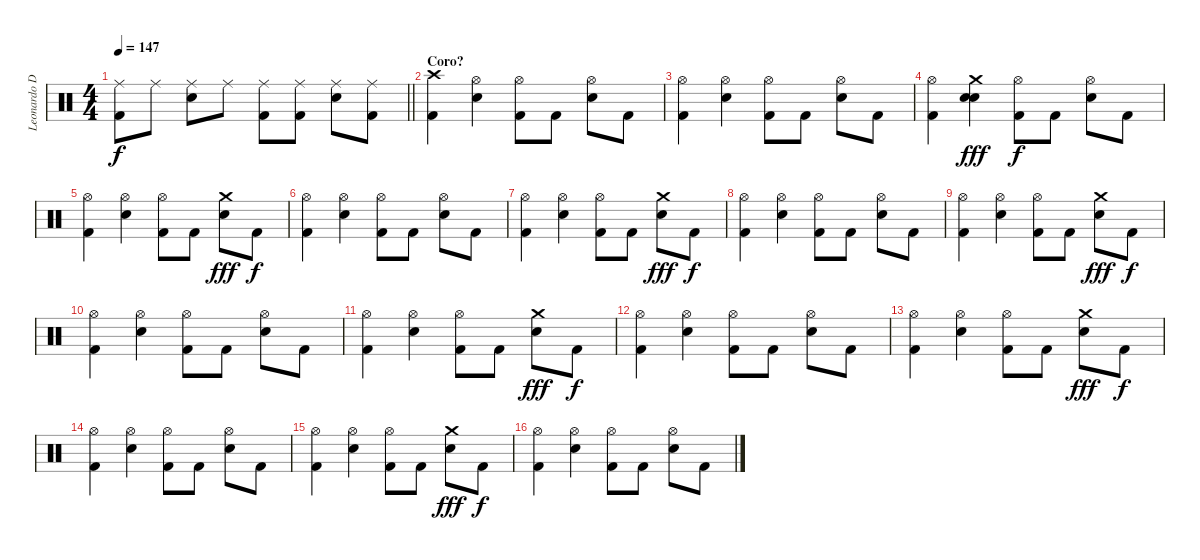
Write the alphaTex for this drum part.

\track ("Leonardo De Cecco" "Leonardo D") {instrument percussion}
\staff {score}
\articulation defaults
\ts (4 4)
\tempo 147
\clef neutral
\barLineRight lightlight
\ks c
("Ride (middle)" "Kick (hit) 2").8{dy f} "Ride (middle)".8 ("Ride (middle)" "Electric Snare (hit)").8 "Ride (middle)".8 ("Ride (middle)" "Kick (hit) 2").8 ("Ride (middle)" "Kick (hit) 2").8 ("Ride (middle)" "Electric Snare (hit)").8 ("Ride (middle)" "Kick (hit) 2").8 |
\section ("" "Coro?")
("Crash high (hit)" "Kick (hit) 2").4 ("Hi-Hat (open)" "Electric Snare (hit)").4 ("Hi-Hat (open)" "Kick (hit) 2").8 "Kick (hit) 2".8 ("Hi-Hat (open)" "Electric Snare (hit)").8 "Kick (hit) 2".8 |
("Hi-Hat (open)" "Kick (hit) 2").4 ("Hi-Hat (open)" "Electric Snare (hit)").4 ("Hi-Hat (open)" "Kick (hit) 2").8 "Kick (hit) 2".8 ("Hi-Hat (open)" "Electric Snare (hit)").8 "Kick (hit) 2".8 |
("Hi-Hat (open)" "Kick (hit) 2").4 ("Crash medium (hit)" "Electric Snare (hit)" "Electric Snare (hit)").4{dy fff} ("Hi-Hat (open)" "Kick (hit) 2").8{dy f} "Kick (hit) 2".8 ("Hi-Hat (open)" "Electric Snare (hit)").8 "Kick (hit) 2".8 |
("Hi-Hat (open)" "Kick (hit) 2").4 ("Hi-Hat (open)" "Electric Snare (hit)").4 ("Hi-Hat (open)" "Kick (hit) 2").8 "Kick (hit) 2".8 ("Crash medium (hit)" "Electric Snare (hit)").8{dy fff} "Kick (hit) 2".8{dy f} |
("Hi-Hat (open)" "Kick (hit) 2").4 ("Hi-Hat (open)" "Electric Snare (hit)").4 ("Hi-Hat (open)" "Kick (hit) 2").8 "Kick (hit) 2".8 ("Hi-Hat (open)" "Electric Snare (hit)").8 "Kick (hit) 2".8 |
("Hi-Hat (open)" "Kick (hit) 2").4 ("Hi-Hat (open)" "Electric Snare (hit)").4 ("Hi-Hat (open)" "Kick (hit) 2").8 "Kick (hit) 2".8 ("Crash medium (hit)" "Electric Snare (hit)").8{dy fff} "Kick (hit) 2".8{dy f} |
("Hi-Hat (open)" "Kick (hit) 2").4 ("Hi-Hat (open)" "Electric Snare (hit)").4 ("Hi-Hat (open)" "Kick (hit) 2").8 "Kick (hit) 2".8 ("Hi-Hat (open)" "Electric Snare (hit)").8 "Kick (hit) 2".8 |
("Hi-Hat (open)" "Kick (hit) 2").4 ("Hi-Hat (open)" "Electric Snare (hit)").4 ("Hi-Hat (open)" "Kick (hit) 2").8 "Kick (hit) 2".8 ("Crash medium (hit)" "Electric Snare (hit)").8{dy fff} "Kick (hit) 2".8{dy f} |
("Hi-Hat (open)" "Kick (hit) 2").4 ("Hi-Hat (open)" "Electric Snare (hit)").4 ("Hi-Hat (open)" "Kick (hit) 2").8 "Kick (hit) 2".8 ("Hi-Hat (open)" "Electric Snare (hit)").8 "Kick (hit) 2".8 |
("Hi-Hat (open)" "Kick (hit) 2").4 ("Hi-Hat (open)" "Electric Snare (hit)").4 ("Hi-Hat (open)" "Kick (hit) 2").8 "Kick (hit) 2".8 ("Crash medium (hit)" "Electric Snare (hit)").8{dy fff} "Kick (hit) 2".8{dy f} |
("Hi-Hat (open)" "Kick (hit) 2").4 ("Hi-Hat (open)" "Electric Snare (hit)").4 ("Hi-Hat (open)" "Kick (hit) 2").8 "Kick (hit) 2".8 ("Hi-Hat (open)" "Electric Snare (hit)").8 "Kick (hit) 2".8 |
("Hi-Hat (open)" "Kick (hit) 2").4 ("Hi-Hat (open)" "Electric Snare (hit)").4 ("Hi-Hat (open)" "Kick (hit) 2").8 "Kick (hit) 2".8 ("Crash medium (hit)" "Electric Snare (hit)").8{dy fff} "Kick (hit) 2".8{dy f} |
("Hi-Hat (open)" "Kick (hit) 2").4 ("Hi-Hat (open)" "Electric Snare (hit)").4 ("Hi-Hat (open)" "Kick (hit) 2").8 "Kick (hit) 2".8 ("Hi-Hat (open)" "Electric Snare (hit)").8 "Kick (hit) 2".8 |
("Hi-Hat (open)" "Kick (hit) 2").4 ("Hi-Hat (open)" "Electric Snare (hit)").4 ("Hi-Hat (open)" "Kick (hit) 2").8 "Kick (hit) 2".8 ("Crash medium (hit)" "Electric Snare (hit)").8{dy fff} "Kick (hit) 2".8{dy f} |
("Hi-Hat (open)" "Kick (hit) 2").4 ("Hi-Hat (open)" "Electric Snare (hit)").4 ("Hi-Hat (open)" "Kick (hit) 2").8 "Kick (hit) 2".8 ("Hi-Hat (open)" "Electric Snare (hit)").8 "Kick (hit) 2".8
